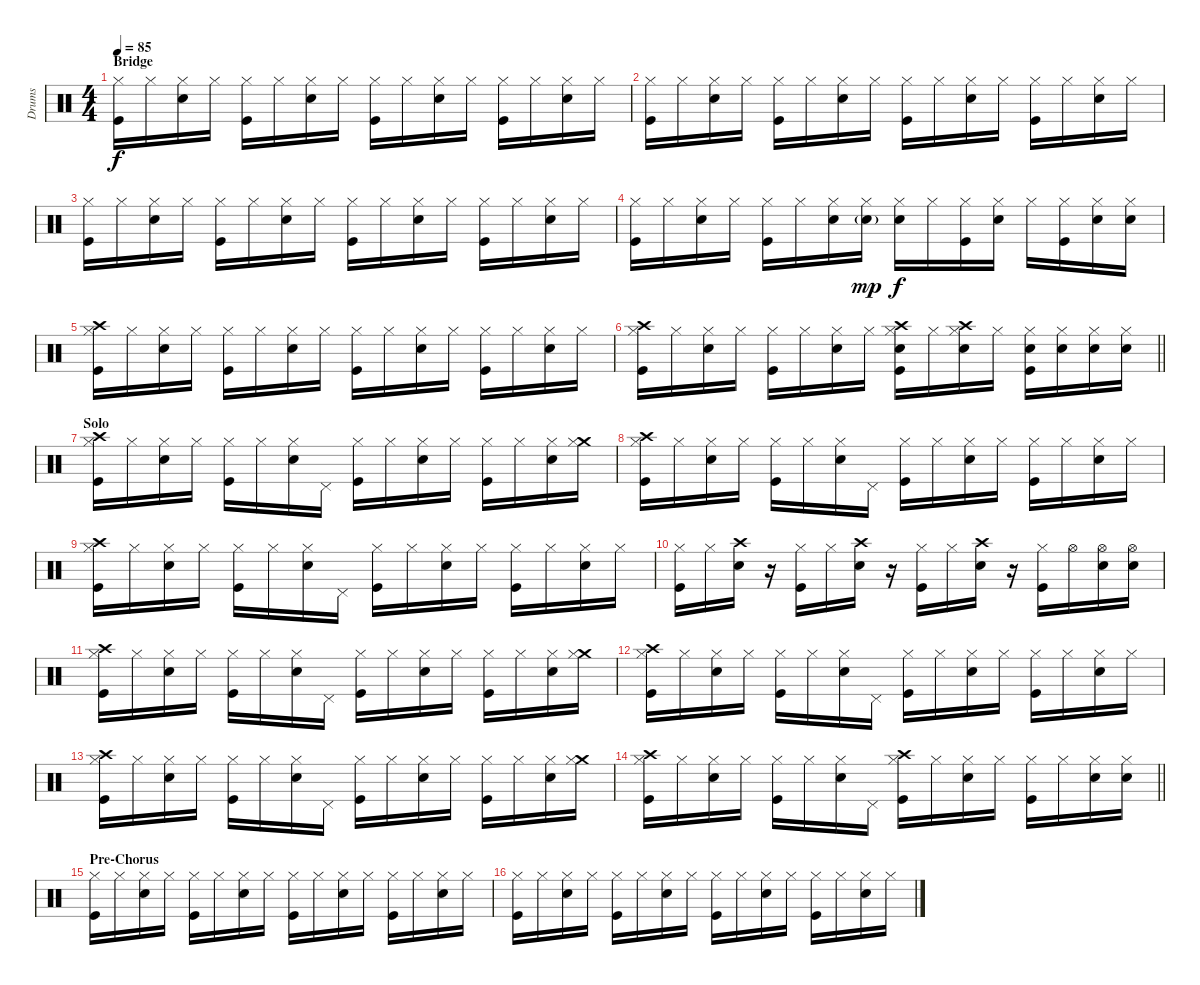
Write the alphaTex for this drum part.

\track ("Drums" "Drums") {instrument percussion}
\staff {score}
\articulation defaults
\ts (4 4)
\section ("" "Bridge")
\tempo 85
\clef neutral
\ks c
("Hi-Hat (closed)" "Kick (hit)").16{dy f} "Hi-Hat (closed)".16 ("Hi-Hat (closed)" "Electric Snare (hit)").16 "Hi-Hat (closed)".16 ("Hi-Hat (closed)" "Kick (hit)").16 "Hi-Hat (closed)".16 ("Hi-Hat (closed)" "Electric Snare (hit)").16 "Hi-Hat (closed)".16 ("Hi-Hat (closed)" "Kick (hit)").16 "Hi-Hat (closed)".16 ("Hi-Hat (closed)" "Electric Snare (hit)").16 "Hi-Hat (closed)".16 ("Hi-Hat (closed)" "Kick (hit)").16 "Hi-Hat (closed)".16 ("Hi-Hat (closed)" "Electric Snare (hit)").16 "Hi-Hat (closed)".16 |
("Hi-Hat (closed)" "Kick (hit)").16 "Hi-Hat (closed)".16 ("Hi-Hat (closed)" "Electric Snare (hit)").16 "Hi-Hat (closed)".16 ("Hi-Hat (closed)" "Kick (hit)").16 "Hi-Hat (closed)".16 ("Hi-Hat (closed)" "Electric Snare (hit)").16 "Hi-Hat (closed)".16 ("Hi-Hat (closed)" "Kick (hit)").16 "Hi-Hat (closed)".16 ("Hi-Hat (closed)" "Electric Snare (hit)").16 "Hi-Hat (closed)".16 ("Hi-Hat (closed)" "Kick (hit)").16 "Hi-Hat (closed)".16 ("Hi-Hat (closed)" "Electric Snare (hit)").16 "Hi-Hat (closed)".16 |
("Hi-Hat (closed)" "Kick (hit)").16 "Hi-Hat (closed)".16 ("Hi-Hat (closed)" "Electric Snare (hit)").16 "Hi-Hat (closed)".16 ("Hi-Hat (closed)" "Kick (hit)").16 "Hi-Hat (closed)".16 ("Hi-Hat (closed)" "Electric Snare (hit)").16 "Hi-Hat (closed)".16 ("Hi-Hat (closed)" "Kick (hit)").16 "Hi-Hat (closed)".16 ("Hi-Hat (closed)" "Electric Snare (hit)").16 "Hi-Hat (closed)".16 ("Hi-Hat (closed)" "Kick (hit)").16 "Hi-Hat (closed)".16 ("Hi-Hat (closed)" "Electric Snare (hit)").16 "Hi-Hat (closed)".16 |
("Hi-Hat (closed)" "Kick (hit)").16 "Hi-Hat (closed)".16 ("Hi-Hat (closed)" "Electric Snare (hit)").16 "Hi-Hat (closed)".16 ("Hi-Hat (closed)" "Kick (hit)").16 "Hi-Hat (closed)".16 ("Hi-Hat (closed)" "Electric Snare (hit)").16 ("Hi-Hat (closed)" "Electric Snare (hit)"{g}).16{dy mp} ("Hi-Hat (closed)" "Electric Snare (hit)").16{dy f} "Hi-Hat (closed)".16 ("Hi-Hat (closed)" "Kick (hit)").16 ("Hi-Hat (closed)" "Electric Snare (hit)").16 "Hi-Hat (closed)".16 ("Hi-Hat (closed)" "Kick (hit)").16 ("Hi-Hat (closed)" "Electric Snare (hit)").16 ("Hi-Hat (closed)" "Electric Snare (hit)").16 |
("Crash high (hit)" "Hi-Hat (closed)" "Kick (hit)").16 "Hi-Hat (closed)".16 ("Hi-Hat (closed)" "Electric Snare (hit)").16 "Hi-Hat (closed)".16 ("Hi-Hat (closed)" "Kick (hit)").16 "Hi-Hat (closed)".16 ("Hi-Hat (closed)" "Electric Snare (hit)").16 "Hi-Hat (closed)".16 ("Hi-Hat (closed)" "Kick (hit)").16 "Hi-Hat (closed)".16 ("Hi-Hat (closed)" "Electric Snare (hit)").16 "Hi-Hat (closed)".16 ("Hi-Hat (closed)" "Kick (hit)").16 "Hi-Hat (closed)".16 ("Hi-Hat (closed)" "Electric Snare (hit)").16 "Hi-Hat (closed)".16 |
\barLineRight lightlight
("Crash high (hit)" "Hi-Hat (closed)" "Kick (hit)").16 "Hi-Hat (closed)".16 ("Hi-Hat (closed)" "Electric Snare (hit)").16 "Hi-Hat (closed)".16 ("Hi-Hat (closed)" "Kick (hit)").16 "Hi-Hat (closed)".16 ("Hi-Hat (closed)" "Electric Snare (hit)").16 "Hi-Hat (closed)".16 ("Crash high (hit)" "Hi-Hat (closed)" "Electric Snare (hit)" "Kick (hit)").16 "Hi-Hat (closed)".16 ("Crash high (hit)" "Hi-Hat (closed)" "Electric Snare (hit)").16 "Hi-Hat (closed)".16 ("Hi-Hat (closed)" "Electric Snare (hit)" "Kick (hit)").16 ("Hi-Hat (closed)" "Electric Snare (hit)").16 ("Hi-Hat (closed)" "Electric Snare (hit)").16 ("Hi-Hat (closed)" "Electric Snare (hit)").16 |
\section ("" "Solo")
("Crash high (hit)" "Hi-Hat (closed)" "Kick (hit)").16 "Hi-Hat (closed)".16 ("Hi-Hat (closed)" "Electric Snare (hit)").16 "Hi-Hat (closed)".16 ("Hi-Hat (closed)" "Kick (hit)").16 "Hi-Hat (closed)".16 ("Hi-Hat (closed)" "Electric Snare (hit)").16 "Pedal Hi-Hat (hit)".16 ("Hi-Hat (closed)" "Kick (hit)").16 "Hi-Hat (closed)".16 ("Hi-Hat (closed)" "Electric Snare (hit)").16 "Hi-Hat (closed)".16 ("Hi-Hat (closed)" "Kick (hit)").16 "Hi-Hat (closed)".16 ("Hi-Hat (closed)" "Electric Snare (hit)").16 ("Crash medium (hit)" "Hi-Hat (closed)").16 |
("Crash high (hit)" "Hi-Hat (closed)" "Kick (hit)").16 "Hi-Hat (closed)".16 ("Hi-Hat (closed)" "Electric Snare (hit)").16 "Hi-Hat (closed)".16 ("Hi-Hat (closed)" "Kick (hit)").16 "Hi-Hat (closed)".16 ("Hi-Hat (closed)" "Electric Snare (hit)").16 "Pedal Hi-Hat (hit)".16 ("Hi-Hat (closed)" "Kick (hit)").16 "Hi-Hat (closed)".16 ("Hi-Hat (closed)" "Electric Snare (hit)").16 "Hi-Hat (closed)".16 ("Hi-Hat (closed)" "Kick (hit)").16 "Hi-Hat (closed)".16 ("Hi-Hat (closed)" "Electric Snare (hit)").16 "Hi-Hat (closed)".16 |
("Crash high (hit)" "Hi-Hat (closed)" "Kick (hit)").16 "Hi-Hat (closed)".16 ("Hi-Hat (closed)" "Electric Snare (hit)").16 "Hi-Hat (closed)".16 ("Hi-Hat (closed)" "Kick (hit)").16 "Hi-Hat (closed)".16 ("Hi-Hat (closed)" "Electric Snare (hit)").16 "Pedal Hi-Hat (hit)".16 ("Hi-Hat (closed)" "Kick (hit)").16 "Hi-Hat (closed)".16 ("Hi-Hat (closed)" "Electric Snare (hit)").16 "Hi-Hat (closed)".16 ("Hi-Hat (closed)" "Kick (hit)").16 "Hi-Hat (closed)".16 ("Hi-Hat (closed)" "Electric Snare (hit)").16 "Hi-Hat (closed)".16 |
("Hi-Hat (closed)" "Kick (hit)").16 "Hi-Hat (closed)".16 ("Crash high (hit)" "Electric Snare (hit)").16 r.16 ("Hi-Hat (closed)" "Kick (hit)").16 "Hi-Hat (closed)".16 ("Crash high (hit)" "Electric Snare (hit)").16 r.16 ("Hi-Hat (closed)" "Kick (hit)").16 "Hi-Hat (closed)".16 ("Crash high (hit)" "Electric Snare (hit)").16 r.16 ("Hi-Hat (closed)" "Kick (hit)").16 "Hi-Hat (open)".16 ("Hi-Hat (open)" "Electric Snare (hit)").16 ("Hi-Hat (open)" "Electric Snare (hit)").16 |
("Crash high (hit)" "Hi-Hat (closed)" "Kick (hit)").16 "Hi-Hat (closed)".16 ("Hi-Hat (closed)" "Electric Snare (hit)").16 "Hi-Hat (closed)".16 ("Hi-Hat (closed)" "Kick (hit)").16 "Hi-Hat (closed)".16 ("Hi-Hat (closed)" "Electric Snare (hit)").16 "Pedal Hi-Hat (hit)".16 ("Hi-Hat (closed)" "Kick (hit)").16 "Hi-Hat (closed)".16 ("Hi-Hat (closed)" "Electric Snare (hit)").16 "Hi-Hat (closed)".16 ("Hi-Hat (closed)" "Kick (hit)").16 "Hi-Hat (closed)".16 ("Hi-Hat (closed)" "Electric Snare (hit)").16 ("Crash medium (hit)" "Hi-Hat (closed)").16 |
("Crash high (hit)" "Hi-Hat (closed)" "Kick (hit)").16 "Hi-Hat (closed)".16 ("Hi-Hat (closed)" "Electric Snare (hit)").16 "Hi-Hat (closed)".16 ("Hi-Hat (closed)" "Kick (hit)").16 "Hi-Hat (closed)".16 ("Hi-Hat (closed)" "Electric Snare (hit)").16 "Pedal Hi-Hat (hit)".16 ("Hi-Hat (closed)" "Kick (hit)").16 "Hi-Hat (closed)".16 ("Hi-Hat (closed)" "Electric Snare (hit)").16 "Hi-Hat (closed)".16 ("Hi-Hat (closed)" "Kick (hit)").16 "Hi-Hat (closed)".16 ("Hi-Hat (closed)" "Electric Snare (hit)").16 "Hi-Hat (closed)".16 |
("Crash high (hit)" "Hi-Hat (closed)" "Kick (hit)").16 "Hi-Hat (closed)".16 ("Hi-Hat (closed)" "Electric Snare (hit)").16 "Hi-Hat (closed)".16 ("Hi-Hat (closed)" "Kick (hit)").16 "Hi-Hat (closed)".16 ("Hi-Hat (closed)" "Electric Snare (hit)").16 "Pedal Hi-Hat (hit)".16 ("Hi-Hat (closed)" "Kick (hit)").16 "Hi-Hat (closed)".16 ("Hi-Hat (closed)" "Electric Snare (hit)").16 "Hi-Hat (closed)".16 ("Hi-Hat (closed)" "Kick (hit)").16 "Hi-Hat (closed)".16 ("Hi-Hat (closed)" "Electric Snare (hit)").16 ("Crash medium (hit)" "Hi-Hat (closed)").16 |
\barLineRight lightlight
("Crash high (hit)" "Hi-Hat (closed)" "Kick (hit)").16 "Hi-Hat (closed)".16 ("Hi-Hat (closed)" "Electric Snare (hit)").16 "Hi-Hat (closed)".16 ("Hi-Hat (closed)" "Kick (hit)").16 "Hi-Hat (closed)".16 ("Hi-Hat (closed)" "Electric Snare (hit)").16 "Pedal Hi-Hat (hit)".16 ("Crash high (hit)" "Hi-Hat (closed)" "Kick (hit)").16 "Hi-Hat (closed)".16 ("Hi-Hat (closed)" "Electric Snare (hit)").16 "Hi-Hat (closed)".16 ("Hi-Hat (closed)" "Kick (hit)").16 "Hi-Hat (closed)".16 ("Hi-Hat (closed)" "Electric Snare (hit)").16 ("Hi-Hat (closed)" "Electric Snare (hit)").16 |
\section ("" "Pre-Chorus")
("Hi-Hat (closed)" "Kick (hit)").16 "Hi-Hat (closed)".16 ("Hi-Hat (closed)" "Electric Snare (hit)").16 "Hi-Hat (closed)".16 ("Hi-Hat (closed)" "Kick (hit)").16 "Hi-Hat (closed)".16 ("Hi-Hat (closed)" "Electric Snare (hit)").16 "Hi-Hat (closed)".16 ("Hi-Hat (closed)" "Kick (hit)").16 "Hi-Hat (closed)".16 ("Hi-Hat (closed)" "Electric Snare (hit)").16 "Hi-Hat (closed)".16 ("Hi-Hat (closed)" "Kick (hit)").16 "Hi-Hat (closed)".16 ("Hi-Hat (closed)" "Electric Snare (hit)").16 "Hi-Hat (closed)".16 |
("Hi-Hat (closed)" "Kick (hit)").16 "Hi-Hat (closed)".16 ("Hi-Hat (closed)" "Electric Snare (hit)").16 "Hi-Hat (closed)".16 ("Hi-Hat (closed)" "Kick (hit)").16 "Hi-Hat (closed)".16 ("Hi-Hat (closed)" "Electric Snare (hit)").16 "Hi-Hat (closed)".16 ("Hi-Hat (closed)" "Kick (hit)").16 "Hi-Hat (closed)".16 ("Hi-Hat (closed)" "Electric Snare (hit)").16 "Hi-Hat (closed)".16 ("Hi-Hat (closed)" "Kick (hit)").16 "Hi-Hat (closed)".16 ("Hi-Hat (closed)" "Electric Snare (hit)").16 "Hi-Hat (closed)".16
